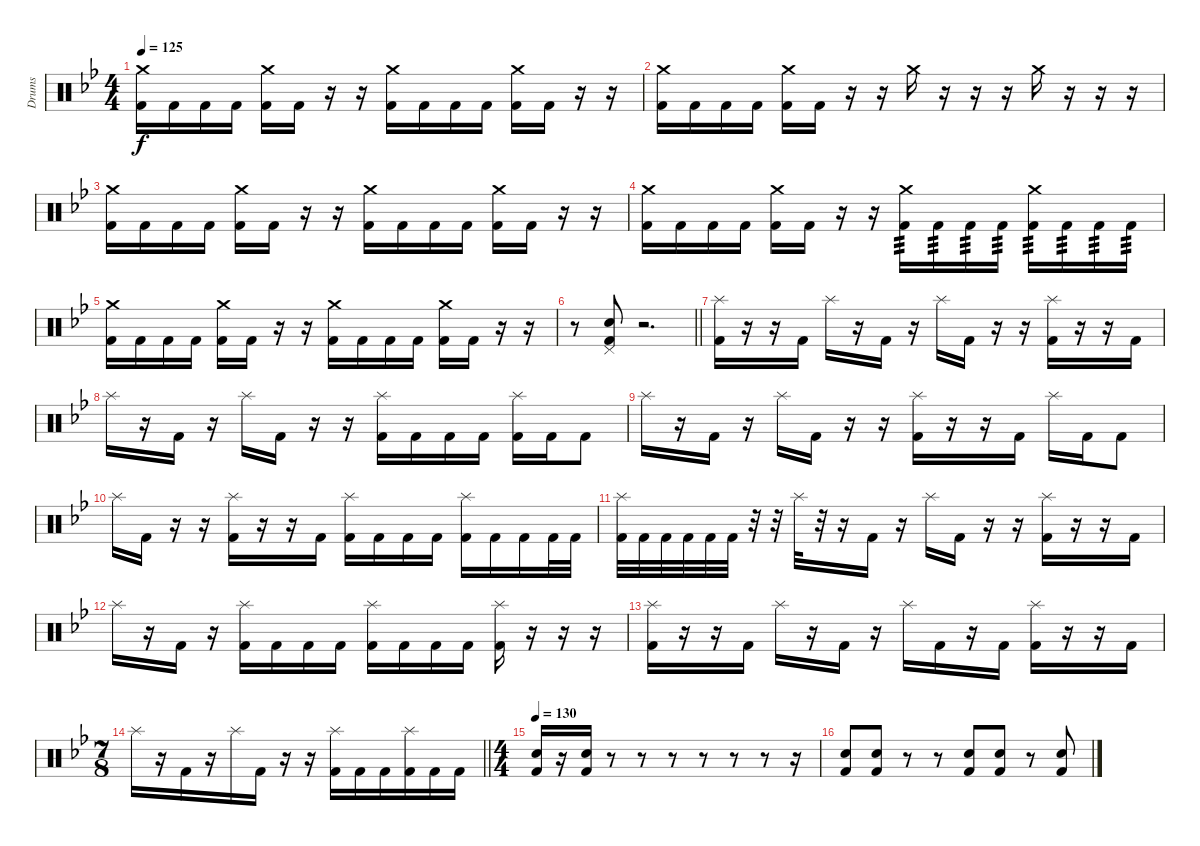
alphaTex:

\track ("Drums" "Drums") {instrument percussion}
\staff {score}
\articulation defaults
\ts (4 4)
\tempo 125
\clef neutral
\ks bb
("Crash medium (hit)" "Kick (hit) 2").16{dy f} "Kick (hit) 2".16 "Kick (hit) 2".16 "Kick (hit) 2".16 ("Crash medium (hit)" "Kick (hit) 2").16 "Kick (hit) 2".16 r.16 r.16 ("Crash medium (hit)" "Kick (hit) 2").16 "Kick (hit) 2".16 "Kick (hit) 2".16 "Kick (hit) 2".16 ("Crash medium (hit)" "Kick (hit) 2").16 "Kick (hit) 2".16 r.16 r.16 |
("Crash medium (hit)" "Kick (hit) 2").16 "Kick (hit) 2".16 "Kick (hit) 2".16 "Kick (hit) 2".16 ("Crash medium (hit)" "Kick (hit) 2").16 "Kick (hit) 2".16 r.16 r.16 "Crash medium (hit)".16 r.16 r.16 r.16 "Crash medium (hit)".16 r.16 r.16 r.16 |
("Crash medium (hit)" "Kick (hit) 2").16 "Kick (hit) 2".16 "Kick (hit) 2".16 "Kick (hit) 2".16 ("Crash medium (hit)" "Kick (hit) 2").16 "Kick (hit) 2".16 r.16 r.16 ("Crash medium (hit)" "Kick (hit) 2").16 "Kick (hit) 2".16 "Kick (hit) 2".16 "Kick (hit) 2".16 ("Crash medium (hit)" "Kick (hit) 2").16 "Kick (hit) 2".16 r.16 r.16 |
("Crash medium (hit)" "Kick (hit) 2").16 "Kick (hit) 2".16 "Kick (hit) 2".16 "Kick (hit) 2".16 ("Crash medium (hit)" "Kick (hit) 2").16 "Kick (hit) 2".16 r.16 r.16 ("Crash medium (hit)" "Kick (hit) 2").16{tp 3} "Kick (hit) 2".16{tp 3} "Kick (hit) 2".16{tp 3} "Kick (hit) 2".16{tp 3} ("Crash medium (hit)" "Kick (hit) 2").16{tp 3} "Kick (hit) 2".16{tp 3} "Kick (hit) 2".16{tp 3} "Kick (hit) 2".16{tp 3} |
("Crash medium (hit)" "Kick (hit) 2").16 "Kick (hit) 2".16 "Kick (hit) 2".16 "Kick (hit) 2".16 ("Crash medium (hit)" "Kick (hit) 2").16 "Kick (hit) 2".16 r.16 r.16 ("Crash medium (hit)" "Kick (hit) 2").16 "Kick (hit) 2".16 "Kick (hit) 2".16 "Kick (hit) 2".16 ("Crash medium (hit)" "Kick (hit) 2").16 "Kick (hit) 2".16 r.16 r.16 |
\barLineRight lightlight
r.8 ("Pedal Hi-Hat (hit)" "Electric Snare (hit)" "Kick (hit) 2").8 r.2{d} |
("Splash (hit)" "Kick (hit) 2").16 r.16 r.16 "Kick (hit) 2".16 "Splash (hit)".16 r.16 "Kick (hit) 2".16 r.16 "Splash (hit)".16 "Kick (hit) 2".16 r.16 r.16 ("Splash (hit)" "Kick (hit) 2").16 r.16 r.16 "Kick (hit) 2".16 |
"Splash (hit)".16 r.16 "Kick (hit) 2".16 r.16 "Splash (hit)".16 "Kick (hit) 2".16 r.16 r.16 ("Splash (hit)" "Kick (hit) 2").16 "Kick (hit) 2".16 "Kick (hit) 2".16 "Kick (hit) 2".16 ("Splash (hit)" "Kick (hit) 2").16 "Kick (hit) 2".16 "Kick (hit) 2".8 |
"Splash (hit)".16 r.16 "Kick (hit) 2".16 r.16 "Splash (hit)".16 "Kick (hit) 2".16 r.16 r.16 ("Splash (hit)" "Kick (hit) 2").16 r.16 r.16 "Kick (hit) 2".16 "Splash (hit)".16 "Kick (hit) 2".16 "Kick (hit) 2".8 |
"Splash (hit)".16 "Kick (hit) 2".16 r.16 r.16 ("Splash (hit)" "Kick (hit) 2").16 r.16 r.16 "Kick (hit) 2".16 ("Splash (hit)" "Kick (hit) 2").16 "Kick (hit) 2".16 "Kick (hit) 2".16 "Kick (hit) 2".16 ("Splash (hit)" "Kick (hit) 2").16 "Kick (hit) 2".16 "Kick (hit) 2".16 "Kick (hit) 2".32 "Kick (hit) 2".32 |
("Splash (hit)" "Kick (hit) 2").32 "Kick (hit) 2".32 "Kick (hit) 2".32 "Kick (hit) 2".32 "Kick (hit) 2".32 "Kick (hit) 2".32 r.32 r.32 "Splash (hit)".32 r.32 r.16 "Kick (hit) 2".16 r.16 "Splash (hit)".16 "Kick (hit) 2".16 r.16 r.16 ("Splash (hit)" "Kick (hit) 2").16 r.16 r.16 "Kick (hit) 2".16 |
"Splash (hit)".16 r.16 "Kick (hit) 2".16 r.16 ("Splash (hit)" "Kick (hit) 2").16 "Kick (hit) 2".16 "Kick (hit) 2".16 "Kick (hit) 2".16 ("Splash (hit)" "Kick (hit) 2").16 "Kick (hit) 2".16 "Kick (hit) 2".16 "Kick (hit) 2".16 ("Splash (hit)" "Kick (hit) 2").16 r.16 r.16 r.16 |
("Splash (hit)" "Kick (hit) 2").16 r.16 r.16 "Kick (hit) 2".16 "Splash (hit)".16 r.16 "Kick (hit) 2".16 r.16 "Splash (hit)".16 "Kick (hit) 2".16 r.16 "Kick (hit) 2".16 ("Splash (hit)" "Kick (hit) 2").16 r.16 r.16 "Kick (hit) 2".16 |
\ts (7 8)
\barLineRight lightlight "Splash (hit)".16
r.16 "Kick (hit) 2".16 r.16 "Splash (hit)".16 "Kick (hit) 2".16 r.16 r.16 ("Splash (hit)" "Kick (hit) 2").16 "Kick (hit) 2".16 "Kick (hit) 2".16 ("Splash (hit)" "Kick (hit) 2").16 "Kick (hit) 2".16 "Kick (hit) 2".16 |
\ts (4 4)
\tempo 130
("Electric Snare (hit)" "Kick (hit) 2").16 r.16 ("Electric Snare (hit)" "Kick (hit) 2").16 r.8 r.8 r.8 r.8 r.8 r.8 r.16 |
("Electric Snare (hit)" "Kick (hit) 2").8 ("Electric Snare (hit)" "Kick (hit) 2").8 r.8 r.8 ("Electric Snare (hit)" "Kick (hit) 2").8 ("Electric Snare (hit)" "Kick (hit) 2").8 r.8 ("Electric Snare (hit)" "Kick (hit) 2").8
